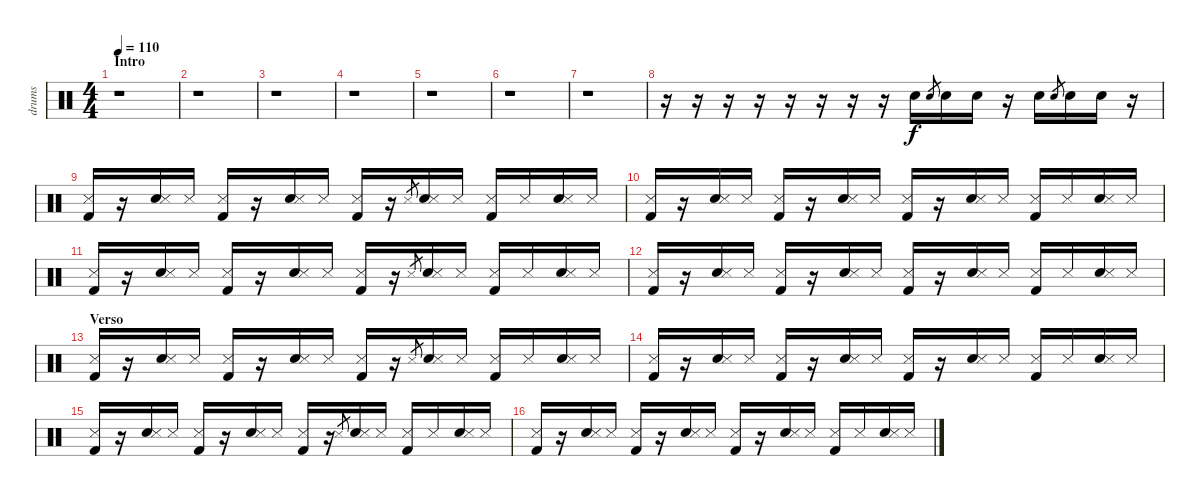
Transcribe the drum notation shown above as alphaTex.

\track ("drums" "drums") {instrument percussion}
\staff {score}
\articulation defaults
\ts (4 4)
\section ("" "Intro")
\tempo 110
\clef neutral
\ks c
r.1{dy f} |
r.1 |
r.1 |
r.1 |
r.1 |
r.1 |
r.1 |
r.16 r.16 r.16 r.16 r.16 r.16 r.16 r.16 "Snare (hit) 2".16 "Snare (hit) 2".8{gr} "Snare (hit) 2".16 "Snare (hit) 2".16 r.16 "Snare (hit) 2".16 "Snare (hit) 2".8{gr} "Snare (hit) 2".16 "Snare (hit) 2".16 r.16 |
("Kick (hit) 2" "Snare (side stick) 3").16 r.16 ("Electric Snare (hit)" "Snare (side stick) 3").16 "Snare (side stick) 3".16 ("Kick (hit) 2" "Snare (side stick) 3").16 r.16 ("Electric Snare (hit)" "Snare (side stick) 3").16 "Snare (side stick) 3".16 ("Kick (hit) 2" "Snare (side stick) 3").16 r.16 "Snare (side stick) 3".8{gr} ("Electric Snare (hit)" "Snare (side stick) 3").16 "Snare (side stick) 3".16 ("Kick (hit) 2" "Snare (side stick) 3").16 "Snare (side stick) 3".16 ("Electric Snare (hit)" "Snare (side stick) 3").16 "Snare (side stick) 3".16 |
("Kick (hit) 2" "Snare (side stick) 3").16 r.16 ("Electric Snare (hit)" "Snare (side stick) 3").16 "Snare (side stick) 3".16 ("Kick (hit) 2" "Snare (side stick) 3").16 r.16 ("Electric Snare (hit)" "Snare (side stick) 3").16 "Snare (side stick) 3".16 ("Kick (hit) 2" "Snare (side stick) 3").16 r.16 ("Electric Snare (hit)" "Snare (side stick) 3").16 "Snare (side stick) 3".16 ("Kick (hit) 2" "Snare (side stick) 3").16 "Snare (side stick) 3".16 ("Electric Snare (hit)" "Snare (side stick) 3").16 "Snare (side stick) 3".16 |
("Kick (hit) 2" "Snare (side stick) 3").16 r.16 ("Electric Snare (hit)" "Snare (side stick) 3").16 "Snare (side stick) 3".16 ("Kick (hit) 2" "Snare (side stick) 3").16 r.16 ("Electric Snare (hit)" "Snare (side stick) 3").16 "Snare (side stick) 3".16 ("Kick (hit) 2" "Snare (side stick) 3").16 r.16 "Snare (side stick) 3".8{gr} ("Electric Snare (hit)" "Snare (side stick) 3").16 "Snare (side stick) 3".16 ("Kick (hit) 2" "Snare (side stick) 3").16 "Snare (side stick) 3".16 ("Electric Snare (hit)" "Snare (side stick) 3").16 "Snare (side stick) 3".16 |
("Kick (hit) 2" "Snare (side stick) 3").16 r.16 ("Electric Snare (hit)" "Snare (side stick) 3").16 "Snare (side stick) 3".16 ("Kick (hit) 2" "Snare (side stick) 3").16 r.16 ("Electric Snare (hit)" "Snare (side stick) 3").16 "Snare (side stick) 3".16 ("Kick (hit) 2" "Snare (side stick) 3").16 r.16 ("Electric Snare (hit)" "Snare (side stick) 3").16 "Snare (side stick) 3".16 ("Kick (hit) 2" "Snare (side stick) 3").16 "Snare (side stick) 3".16 ("Electric Snare (hit)" "Snare (side stick) 3").16 "Snare (side stick) 3".16 |
\section ("" "Verso")
("Kick (hit) 2" "Snare (side stick) 3").16 r.16 ("Electric Snare (hit)" "Snare (side stick) 3").16 "Snare (side stick) 3".16 ("Kick (hit) 2" "Snare (side stick) 3").16 r.16 ("Electric Snare (hit)" "Snare (side stick) 3").16 "Snare (side stick) 3".16 ("Kick (hit) 2" "Snare (side stick) 3").16 r.16 "Snare (side stick) 3".8{gr} ("Electric Snare (hit)" "Snare (side stick) 3").16 "Snare (side stick) 3".16 ("Kick (hit) 2" "Snare (side stick) 3").16 "Snare (side stick) 3".16 ("Electric Snare (hit)" "Snare (side stick) 3").16 "Snare (side stick) 3".16 |
("Kick (hit) 2" "Snare (side stick) 3").16 r.16 ("Electric Snare (hit)" "Snare (side stick) 3").16 "Snare (side stick) 3".16 ("Kick (hit) 2" "Snare (side stick) 3").16 r.16 ("Electric Snare (hit)" "Snare (side stick) 3").16 "Snare (side stick) 3".16 ("Kick (hit) 2" "Snare (side stick) 3").16 r.16 ("Electric Snare (hit)" "Snare (side stick) 3").16 "Snare (side stick) 3".16 ("Kick (hit) 2" "Snare (side stick) 3").16 "Snare (side stick) 3".16 ("Electric Snare (hit)" "Snare (side stick) 3").16 "Snare (side stick) 3".16 |
("Kick (hit) 2" "Snare (side stick) 3").16 r.16 ("Electric Snare (hit)" "Snare (side stick) 3").16 "Snare (side stick) 3".16 ("Kick (hit) 2" "Snare (side stick) 3").16 r.16 ("Electric Snare (hit)" "Snare (side stick) 3").16 "Snare (side stick) 3".16 ("Kick (hit) 2" "Snare (side stick) 3").16 r.16 "Snare (side stick) 3".8{gr} ("Electric Snare (hit)" "Snare (side stick) 3").16 "Snare (side stick) 3".16 ("Kick (hit) 2" "Snare (side stick) 3").16 "Snare (side stick) 3".16 ("Electric Snare (hit)" "Snare (side stick) 3").16 "Snare (side stick) 3".16 |
("Kick (hit) 2" "Snare (side stick) 3").16 r.16 ("Electric Snare (hit)" "Snare (side stick) 3").16 "Snare (side stick) 3".16 ("Kick (hit) 2" "Snare (side stick) 3").16 r.16 ("Electric Snare (hit)" "Snare (side stick) 3").16 "Snare (side stick) 3".16 ("Kick (hit) 2" "Snare (side stick) 3").16 r.16 ("Electric Snare (hit)" "Snare (side stick) 3").16 "Snare (side stick) 3".16 ("Kick (hit) 2" "Snare (side stick) 3").16 "Snare (side stick) 3".16 ("Electric Snare (hit)" "Snare (side stick) 3").16 "Snare (side stick) 3".16
